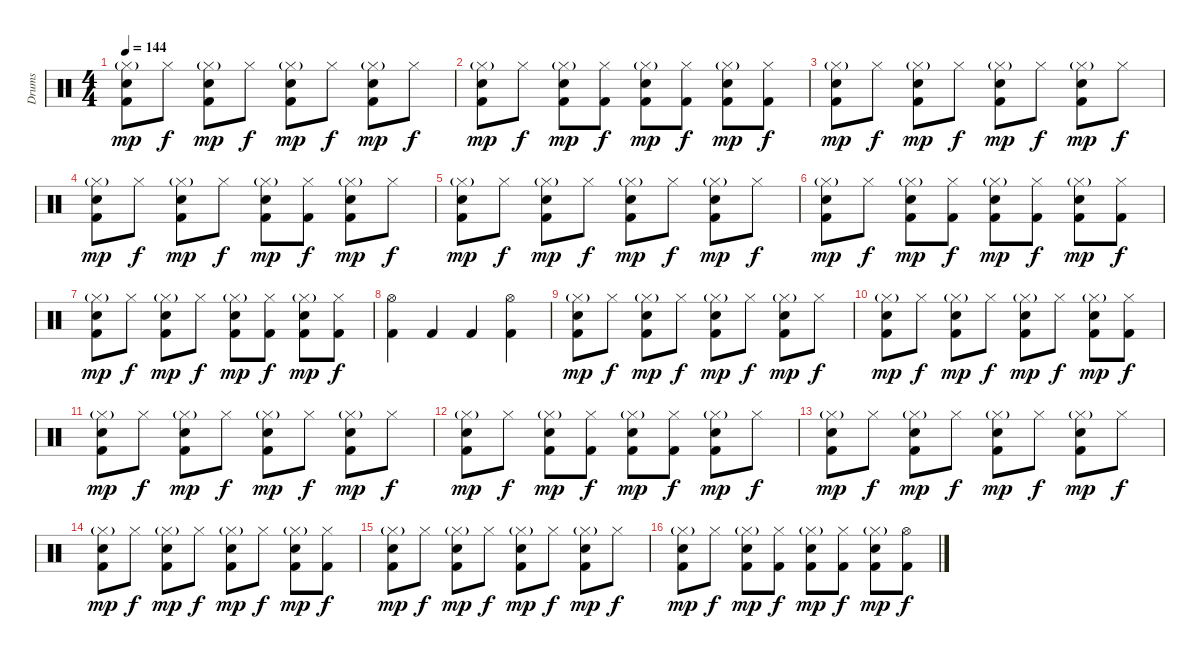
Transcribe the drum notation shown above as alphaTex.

\track ("Drums" "Drums") {instrument percussion}
\staff {score}
\articulation defaults
\ts (4 4)
\tempo 144
\clef neutral
\ks c
("Hi-Hat (closed)"{g} "Snare (hit) 2" "Kick (hit) 2").8{dy mp} "Hi-Hat (closed)".8{dy f} ("Hi-Hat (closed)"{g} "Snare (hit) 2" "Kick (hit) 2").8{dy mp} "Hi-Hat (closed)".8{dy f} ("Hi-Hat (closed)"{g} "Snare (hit) 2" "Kick (hit) 2").8{dy mp} "Hi-Hat (closed)".8{dy f} ("Hi-Hat (closed)"{g} "Snare (hit) 2" "Kick (hit) 2").8{dy mp} "Hi-Hat (closed)".8{dy f} |
("Hi-Hat (closed)"{g} "Snare (hit) 2" "Kick (hit) 2").8{dy mp} "Hi-Hat (closed)".8{dy f} ("Hi-Hat (closed)"{g} "Snare (hit) 2" "Kick (hit) 2").8{dy mp} ("Hi-Hat (closed)" "Kick (hit) 2").8{dy f} ("Hi-Hat (closed)"{g} "Snare (hit) 2" "Kick (hit) 2").8{dy mp} ("Hi-Hat (closed)" "Kick (hit) 2").8{dy f} ("Hi-Hat (closed)"{g} "Snare (hit) 2" "Kick (hit) 2").8{dy mp} ("Hi-Hat (closed)" "Kick (hit) 2").8{dy f} |
("Hi-Hat (closed)"{g} "Snare (hit) 2" "Kick (hit) 2").8{dy mp} "Hi-Hat (closed)".8{dy f} ("Hi-Hat (closed)"{g} "Snare (hit) 2" "Kick (hit) 2").8{dy mp} "Hi-Hat (closed)".8{dy f} ("Hi-Hat (closed)"{g} "Snare (hit) 2" "Kick (hit) 2").8{dy mp} "Hi-Hat (closed)".8{dy f} ("Hi-Hat (closed)"{g} "Snare (hit) 2" "Kick (hit) 2").8{dy mp} "Hi-Hat (closed)".8{dy f} |
("Hi-Hat (closed)"{g} "Snare (hit) 2" "Kick (hit) 2").8{dy mp} "Hi-Hat (closed)".8{dy f} ("Hi-Hat (closed)"{g} "Snare (hit) 2" "Kick (hit) 2").8{dy mp} "Hi-Hat (closed)".8{dy f} ("Hi-Hat (closed)"{g} "Snare (hit) 2" "Kick (hit) 2").8{dy mp} ("Hi-Hat (closed)" "Kick (hit) 2").8{dy f} ("Hi-Hat (closed)"{g} "Snare (hit) 2" "Kick (hit) 2").8{dy mp} "Hi-Hat (closed)".8{dy f} |
("Hi-Hat (closed)"{g} "Snare (hit) 2" "Kick (hit) 2").8{dy mp} "Hi-Hat (closed)".8{dy f} ("Hi-Hat (closed)"{g} "Snare (hit) 2" "Kick (hit) 2").8{dy mp} "Hi-Hat (closed)".8{dy f} ("Hi-Hat (closed)"{g} "Snare (hit) 2" "Kick (hit) 2").8{dy mp} "Hi-Hat (closed)".8{dy f} ("Hi-Hat (closed)"{g} "Snare (hit) 2" "Kick (hit) 2").8{dy mp} "Hi-Hat (closed)".8{dy f} |
("Hi-Hat (closed)"{g} "Snare (hit) 2" "Kick (hit) 2").8{dy mp} "Hi-Hat (closed)".8{dy f} ("Hi-Hat (closed)"{g} "Snare (hit) 2" "Kick (hit) 2").8{dy mp} ("Hi-Hat (closed)" "Kick (hit) 2").8{dy f} ("Hi-Hat (closed)"{g} "Snare (hit) 2" "Kick (hit) 2").8{dy mp} ("Hi-Hat (closed)" "Kick (hit) 2").8{dy f} ("Hi-Hat (closed)"{g} "Snare (hit) 2" "Kick (hit) 2").8{dy mp} ("Hi-Hat (closed)" "Kick (hit) 2").8{dy f} |
("Hi-Hat (closed)"{g} "Snare (hit) 2" "Kick (hit) 2").8{dy mp} "Hi-Hat (closed)".8{dy f} ("Hi-Hat (closed)"{g} "Snare (hit) 2" "Kick (hit) 2").8{dy mp} "Hi-Hat (closed)".8{dy f} ("Hi-Hat (closed)"{g} "Snare (hit) 2" "Kick (hit) 2").8{dy mp} ("Hi-Hat (closed)" "Kick (hit) 2").8{dy f} ("Hi-Hat (closed)"{g} "Snare (hit) 2" "Kick (hit) 2").8{dy mp} ("Hi-Hat (closed)" "Kick (hit) 2").8{dy f} |
("Hi-Hat (open)" "Kick (hit) 2").4 "Kick (hit) 2".4 "Kick (hit) 2".4 ("Hi-Hat (open)" "Kick (hit) 2").4 |
("Hi-Hat (closed)"{g} "Snare (hit) 2" "Kick (hit) 2").8{dy mp} "Hi-Hat (closed)".8{dy f} ("Hi-Hat (closed)"{g} "Snare (hit) 2" "Kick (hit) 2").8{dy mp} "Hi-Hat (closed)".8{dy f} ("Hi-Hat (closed)"{g} "Snare (hit) 2" "Kick (hit) 2").8{dy mp} "Hi-Hat (closed)".8{dy f} ("Hi-Hat (closed)"{g} "Snare (hit) 2" "Kick (hit) 2").8{dy mp} "Hi-Hat (closed)".8{dy f} |
("Hi-Hat (closed)"{g} "Snare (hit) 2" "Kick (hit) 2").8{dy mp} "Hi-Hat (closed)".8{dy f} ("Hi-Hat (closed)"{g} "Snare (hit) 2" "Kick (hit) 2").8{dy mp} "Hi-Hat (closed)".8{dy f} ("Hi-Hat (closed)"{g} "Snare (hit) 2" "Kick (hit) 2").8{dy mp} "Hi-Hat (closed)".8{dy f} ("Hi-Hat (closed)"{g} "Snare (hit) 2" "Kick (hit) 2").8{dy mp} ("Hi-Hat (closed)" "Kick (hit) 2").8{dy f} |
("Hi-Hat (closed)"{g} "Snare (hit) 2" "Kick (hit) 2").8{dy mp} "Hi-Hat (closed)".8{dy f} ("Hi-Hat (closed)"{g} "Snare (hit) 2" "Kick (hit) 2").8{dy mp} "Hi-Hat (closed)".8{dy f} ("Hi-Hat (closed)"{g} "Snare (hit) 2" "Kick (hit) 2").8{dy mp} "Hi-Hat (closed)".8{dy f} ("Hi-Hat (closed)"{g} "Snare (hit) 2" "Kick (hit) 2").8{dy mp} "Hi-Hat (closed)".8{dy f} |
("Hi-Hat (closed)"{g} "Snare (hit) 2" "Kick (hit) 2").8{dy mp} "Hi-Hat (closed)".8{dy f} ("Hi-Hat (closed)"{g} "Snare (hit) 2" "Kick (hit) 2").8{dy mp} ("Hi-Hat (closed)" "Kick (hit) 2").8{dy f} ("Hi-Hat (closed)"{g} "Snare (hit) 2" "Kick (hit) 2").8{dy mp} ("Hi-Hat (closed)" "Kick (hit) 2").8{dy f} ("Hi-Hat (closed)"{g} "Snare (hit) 2" "Kick (hit) 2").8{dy mp} "Hi-Hat (closed)".8{dy f} |
("Hi-Hat (closed)"{g} "Snare (hit) 2" "Kick (hit) 2").8{dy mp} "Hi-Hat (closed)".8{dy f} ("Hi-Hat (closed)"{g} "Snare (hit) 2" "Kick (hit) 2").8{dy mp} "Hi-Hat (closed)".8{dy f} ("Hi-Hat (closed)"{g} "Snare (hit) 2" "Kick (hit) 2").8{dy mp} "Hi-Hat (closed)".8{dy f} ("Hi-Hat (closed)"{g} "Snare (hit) 2" "Kick (hit) 2").8{dy mp} "Hi-Hat (closed)".8{dy f} |
("Hi-Hat (closed)"{g} "Snare (hit) 2" "Kick (hit) 2").8{dy mp} "Hi-Hat (closed)".8{dy f} ("Hi-Hat (closed)"{g} "Snare (hit) 2" "Kick (hit) 2").8{dy mp} "Hi-Hat (closed)".8{dy f} ("Hi-Hat (closed)"{g} "Snare (hit) 2" "Kick (hit) 2").8{dy mp} "Hi-Hat (closed)".8{dy f} ("Hi-Hat (closed)"{g} "Snare (hit) 2" "Kick (hit) 2").8{dy mp} ("Hi-Hat (closed)" "Kick (hit) 2").8{dy f} |
("Hi-Hat (closed)"{g} "Snare (hit) 2" "Kick (hit) 2").8{dy mp} "Hi-Hat (closed)".8{dy f} ("Hi-Hat (closed)"{g} "Snare (hit) 2" "Kick (hit) 2").8{dy mp} "Hi-Hat (closed)".8{dy f} ("Hi-Hat (closed)"{g} "Snare (hit) 2" "Kick (hit) 2").8{dy mp} "Hi-Hat (closed)".8{dy f} ("Hi-Hat (closed)"{g} "Snare (hit) 2" "Kick (hit) 2").8{dy mp} "Hi-Hat (closed)".8{dy f} |
("Hi-Hat (closed)"{g} "Snare (hit) 2" "Kick (hit) 2").8{dy mp} "Hi-Hat (closed)".8{dy f} ("Hi-Hat (closed)"{g} "Snare (hit) 2" "Kick (hit) 2").8{dy mp} ("Hi-Hat (closed)" "Kick (hit) 2").8{dy f} ("Hi-Hat (closed)"{g} "Snare (hit) 2" "Kick (hit) 2").8{dy mp} ("Hi-Hat (closed)" "Kick (hit) 2").8{dy f} ("Hi-Hat (closed)"{g} "Snare (hit) 2" "Kick (hit) 2").8{dy mp} ("Hi-Hat (open)" "Kick (hit) 2").8{dy f}
